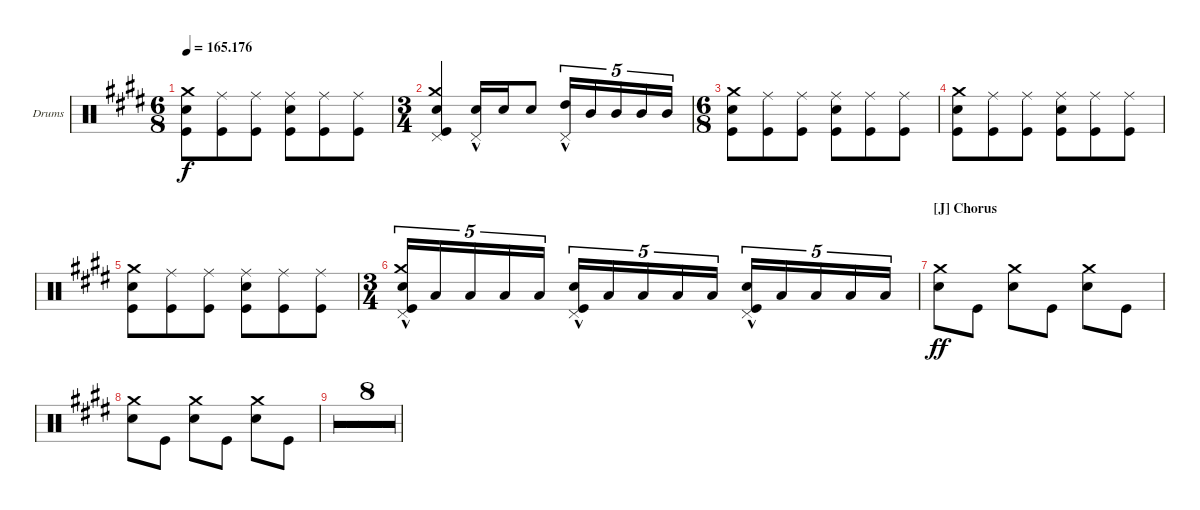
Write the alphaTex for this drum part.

\defaultSystemsLayout 4
\bracketExtendMode groupsimilarinstruments
\firstSystemTrackNameOrientation horizontal
\otherSystemsTrackNameOrientation horizontal
\track ("Dave Grohl (Drums)" "Drums") {multiBarRest instrument percussion}
\staff {score}
\articulation defaults
\ts (6 8)
\tempo
165.176
\accidentals auto
\clef neutral
\ottava regular
\simile none
\ks e
("Snare (hit) 2" "Crash medium (hit)" "Kick (hit)").8{dy f} ("Ride (middle)" "Kick (hit)").8 ("Ride (middle)" "Kick (hit)").8 ("Snare (hit) 2" "Ride (middle)" "Kick (hit)").8 ("Ride (middle)" "Kick (hit)").8 ("Ride (middle)" "Kick (hit)").8 |
\ts (3 4)
("Snare (hit) 2" "Crash medium (hit)" "Kick (hit)" "Pedal Hi-Hat (hit)").4 ("Snare (hit) 2"{hac} "Pedal Hi-Hat (hit)").16 "Snare (hit) 2".16 "Snare (hit) 2".8 ("High Tom (hit)"{hac} "Pedal Hi-Hat (hit)").16{tu (5 4)} "Mid Tom (hit)".16{tu (5 4)} "Mid Tom (hit)".16{tu (5 4)} "Mid Tom (hit)".16{tu (5 4)} "Mid Tom (hit)".16{tu (5 4)} |
\ts (6 8)
("Snare (hit) 2" "Crash medium (hit)" "Kick (hit)").8 ("Ride (middle)" "Kick (hit)").8 ("Ride (middle)" "Kick (hit)").8 ("Snare (hit) 2" "Ride (middle)" "Kick (hit)").8 ("Ride (middle)" "Kick (hit)").8 ("Ride (middle)" "Kick (hit)").8 |
("Snare (hit) 2" "Crash medium (hit)" "Kick (hit)").8 ("Ride (middle)" "Kick (hit)").8 ("Ride (middle)" "Kick (hit)").8 ("Snare (hit) 2" "Ride (middle)" "Kick (hit)").8 ("Ride (middle)" "Kick (hit)").8 ("Ride (middle)" "Kick (hit)").8 |
("Snare (hit) 2" "Crash medium (hit)" "Kick (hit)").8 ("Ride (middle)" "Kick (hit)").8 ("Ride (middle)" "Kick (hit)").8 ("Snare (hit) 2" "Ride (middle)" "Kick (hit)").8 ("Ride (middle)" "Kick (hit)").8 ("Ride (middle)" "Kick (hit)").8 |
\ts (3 4)
("Snare (hit) 2"{hac} "Crash medium (hit)" "Kick (hit)" "Pedal Hi-Hat (hit)").16{tu (5 4)} "Low Tom (hit)".16{tu (5 4)} "Low Tom (hit)".16{tu (5 4)} "Low Tom (hit)".16{tu (5 4)} "Low Tom (hit)".16{tu (5 4)} ("Snare (hit) 2"{hac} "Kick (hit)" "Pedal Hi-Hat (hit)").16{tu (5 4)} "Low Tom (hit)".16{tu (5 4)} "Low Tom (hit)".16{tu (5 4)} "Low Tom (hit)".16{tu (5 4)} "Low Tom (hit)".16{tu (5 4)} ("Snare (hit) 2"{hac} "Kick (hit)" "Pedal Hi-Hat (hit)").16{tu (5 4)} "Low Tom (hit)".16{tu (5 4)} "Low Tom (hit)".16{tu (5 4)} "Low Tom (hit)".16{tu (5 4)} "Low Tom (hit)".16{tu (5 4)} |
\section ("J" "Chorus")
("Snare (hit) 2" "Crash medium (hit)").8{dy ff} "Kick (hit)".8 ("Snare (hit) 2" "Crash medium (hit)").8 "Kick (hit)".8 ("Snare (hit) 2" "Crash medium (hit)").8 "Kick (hit)".8 |
("Snare (hit) 2" "Crash medium (hit)").8 "Kick (hit)".8 ("Snare (hit) 2" "Crash medium (hit)").8 "Kick (hit)".8 ("Snare (hit) 2" "Crash medium (hit)").8 "Kick (hit)".8 |
\simile firstofdouble
|
\simile secondofdouble
|
\simile firstofdouble
|
\simile secondofdouble
|
\simile firstofdouble
|
\simile secondofdouble
|
\simile firstofdouble
|
\simile secondofdouble
